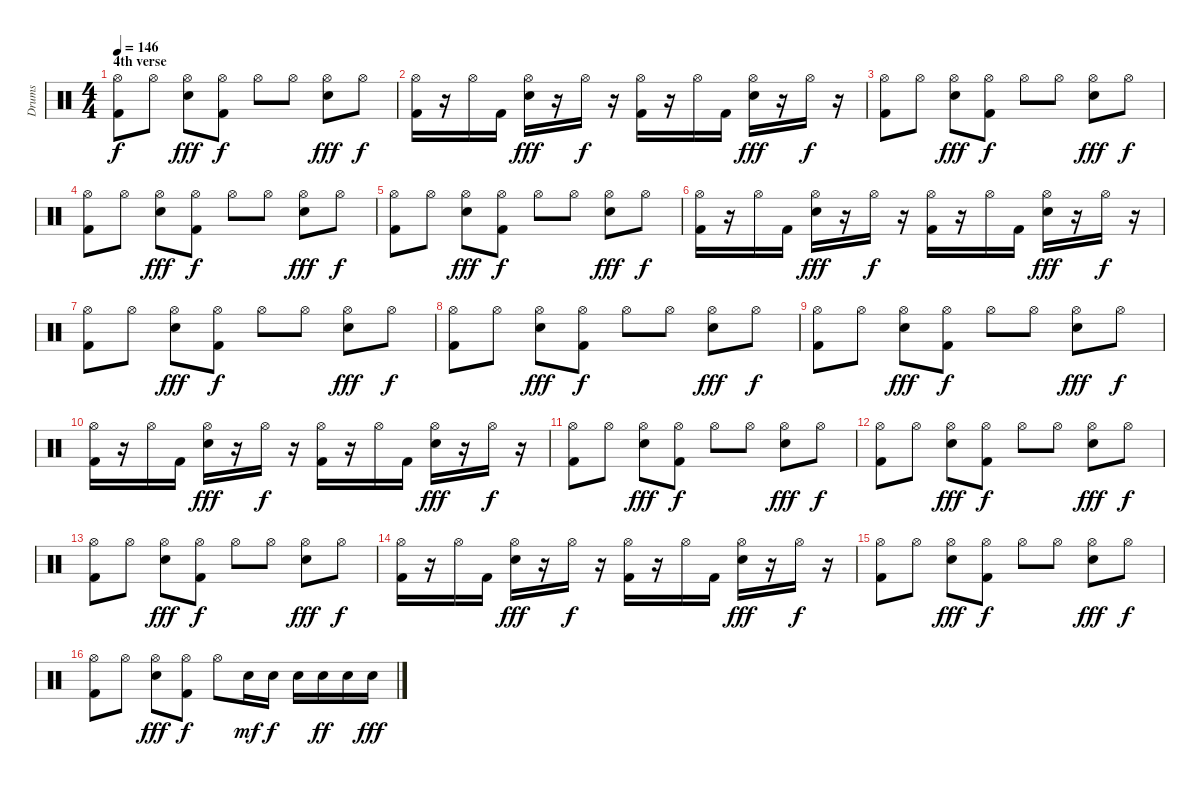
\track ("Drums" "Drums") {instrument percussion}
\staff {score}
\articulation defaults
\ts (4 4)
\section ("" "4th verse")
\tempo 146
\clef neutral
\ks c
("Kick (hit) 2" "Hi-Hat (open)").8{dy f} "Hi-Hat (open)".8 ("Snare (hit) 2" "Hi-Hat (open)").8{dy fff} ("Kick (hit) 2" "Hi-Hat (open)").8{dy f} "Hi-Hat (open)".8 "Hi-Hat (open)".8 ("Snare (hit) 2" "Hi-Hat (open)").8{dy fff} "Hi-Hat (open)".8{dy f} |
("Kick (hit) 2" "Hi-Hat (open)").16 r.16 "Hi-Hat (open)".16 "Kick (hit) 2".16 ("Snare (hit) 2" "Hi-Hat (open)").16{dy fff} r.16 "Hi-Hat (open)".16{dy f} r.16 ("Kick (hit) 2" "Hi-Hat (open)").16 r.16 "Hi-Hat (open)".16 "Kick (hit) 2".16 ("Snare (hit) 2" "Hi-Hat (open)").16{dy fff} r.16 "Hi-Hat (open)".16{dy f} r.16 |
("Kick (hit) 2" "Hi-Hat (open)").8 "Hi-Hat (open)".8 ("Snare (hit) 2" "Hi-Hat (open)").8{dy fff} ("Kick (hit) 2" "Hi-Hat (open)").8{dy f} "Hi-Hat (open)".8 "Hi-Hat (open)".8 ("Snare (hit) 2" "Hi-Hat (open)").8{dy fff} "Hi-Hat (open)".8{dy f} |
("Kick (hit) 2" "Hi-Hat (open)").8 "Hi-Hat (open)".8 ("Snare (hit) 2" "Hi-Hat (open)").8{dy fff} ("Kick (hit) 2" "Hi-Hat (open)").8{dy f} "Hi-Hat (open)".8 "Hi-Hat (open)".8 ("Snare (hit) 2" "Hi-Hat (open)").8{dy fff} "Hi-Hat (open)".8{dy f} |
("Kick (hit) 2" "Hi-Hat (open)").8 "Hi-Hat (open)".8 ("Snare (hit) 2" "Hi-Hat (open)").8{dy fff} ("Kick (hit) 2" "Hi-Hat (open)").8{dy f} "Hi-Hat (open)".8 "Hi-Hat (open)".8 ("Snare (hit) 2" "Hi-Hat (open)").8{dy fff} "Hi-Hat (open)".8{dy f} |
("Kick (hit) 2" "Hi-Hat (open)").16 r.16 "Hi-Hat (open)".16 "Kick (hit) 2".16 ("Snare (hit) 2" "Hi-Hat (open)").16{dy fff} r.16 "Hi-Hat (open)".16{dy f} r.16 ("Kick (hit) 2" "Hi-Hat (open)").16 r.16 "Hi-Hat (open)".16 "Kick (hit) 2".16 ("Snare (hit) 2" "Hi-Hat (open)").16{dy fff} r.16 "Hi-Hat (open)".16{dy f} r.16 |
("Kick (hit) 2" "Hi-Hat (open)").8 "Hi-Hat (open)".8 ("Snare (hit) 2" "Hi-Hat (open)").8{dy fff} ("Kick (hit) 2" "Hi-Hat (open)").8{dy f} "Hi-Hat (open)".8 "Hi-Hat (open)".8 ("Snare (hit) 2" "Hi-Hat (open)").8{dy fff} "Hi-Hat (open)".8{dy f} |
("Kick (hit) 2" "Hi-Hat (open)").8 "Hi-Hat (open)".8 ("Snare (hit) 2" "Hi-Hat (open)").8{dy fff} ("Kick (hit) 2" "Hi-Hat (open)").8{dy f} "Hi-Hat (open)".8 "Hi-Hat (open)".8 ("Snare (hit) 2" "Hi-Hat (open)").8{dy fff} "Hi-Hat (open)".8{dy f} |
("Kick (hit) 2" "Hi-Hat (open)").8 "Hi-Hat (open)".8 ("Snare (hit) 2" "Hi-Hat (open)").8{dy fff} ("Kick (hit) 2" "Hi-Hat (open)").8{dy f} "Hi-Hat (open)".8 "Hi-Hat (open)".8 ("Snare (hit) 2" "Hi-Hat (open)").8{dy fff} "Hi-Hat (open)".8{dy f} |
("Kick (hit) 2" "Hi-Hat (open)").16 r.16 "Hi-Hat (open)".16 "Kick (hit) 2".16 ("Snare (hit) 2" "Hi-Hat (open)").16{dy fff} r.16 "Hi-Hat (open)".16{dy f} r.16 ("Kick (hit) 2" "Hi-Hat (open)").16 r.16 "Hi-Hat (open)".16 "Kick (hit) 2".16 ("Snare (hit) 2" "Hi-Hat (open)").16{dy fff} r.16 "Hi-Hat (open)".16{dy f} r.16 |
("Kick (hit) 2" "Hi-Hat (open)").8 "Hi-Hat (open)".8 ("Snare (hit) 2" "Hi-Hat (open)").8{dy fff} ("Kick (hit) 2" "Hi-Hat (open)").8{dy f} "Hi-Hat (open)".8 "Hi-Hat (open)".8 ("Snare (hit) 2" "Hi-Hat (open)").8{dy fff} "Hi-Hat (open)".8{dy f} |
("Kick (hit) 2" "Hi-Hat (open)").8 "Hi-Hat (open)".8 ("Snare (hit) 2" "Hi-Hat (open)").8{dy fff} ("Kick (hit) 2" "Hi-Hat (open)").8{dy f} "Hi-Hat (open)".8 "Hi-Hat (open)".8 ("Snare (hit) 2" "Hi-Hat (open)").8{dy fff} "Hi-Hat (open)".8{dy f} |
("Kick (hit) 2" "Hi-Hat (open)").8 "Hi-Hat (open)".8 ("Snare (hit) 2" "Hi-Hat (open)").8{dy fff} ("Kick (hit) 2" "Hi-Hat (open)").8{dy f} "Hi-Hat (open)".8 "Hi-Hat (open)".8 ("Snare (hit) 2" "Hi-Hat (open)").8{dy fff} "Hi-Hat (open)".8{dy f} |
("Kick (hit) 2" "Hi-Hat (open)").16 r.16 "Hi-Hat (open)".16 "Kick (hit) 2".16 ("Snare (hit) 2" "Hi-Hat (open)").16{dy fff} r.16 "Hi-Hat (open)".16{dy f} r.16 ("Kick (hit) 2" "Hi-Hat (open)").16 r.16 "Hi-Hat (open)".16 "Kick (hit) 2".16 ("Snare (hit) 2" "Hi-Hat (open)").16{dy fff} r.16 "Hi-Hat (open)".16{dy f} r.16 |
("Kick (hit) 2" "Hi-Hat (open)").8 "Hi-Hat (open)".8 ("Snare (hit) 2" "Hi-Hat (open)").8{dy fff} ("Kick (hit) 2" "Hi-Hat (open)").8{dy f} "Hi-Hat (open)".8 "Hi-Hat (open)".8 ("Snare (hit) 2" "Hi-Hat (open)").8{dy fff} "Hi-Hat (open)".8{dy f} |
("Kick (hit) 2" "Hi-Hat (open)").8 "Hi-Hat (open)".8 ("Snare (hit) 2" "Hi-Hat (open)").8{dy fff} ("Kick (hit) 2" "Hi-Hat (open)").8{dy f} "Hi-Hat (open)".8 "Snare (hit) 2".16{dy mf} "Snare (hit) 2".16{dy f} "Snare (hit) 2".16 "Snare (hit) 2".16{dy ff} "Snare (hit) 2".16 "Snare (hit) 2".16{dy fff}
